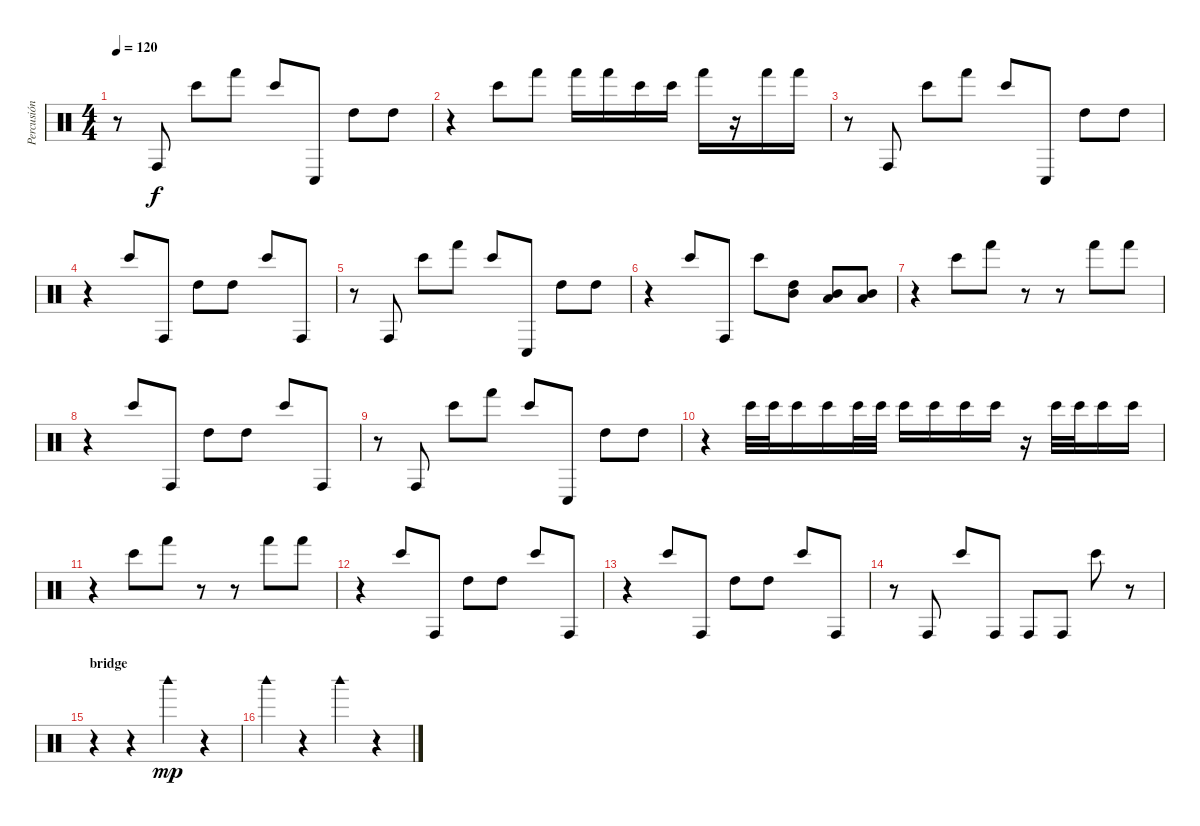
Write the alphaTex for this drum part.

\track ("Percusión" "Percusión") {instrument percussion}
\staff {score}
\articulation defaults
\ts (4 4)
\tempo 120
\clef neutral
\ks c
r.8{dy f} "Conga high (hit)".8 "Bongo High (hit)".8 "Hand (hit)".8 "Bongo High (hit)".8 "Conga low (hit)".8 "High Tom (hit)".8 "High Tom (hit)".8 |
r.4 "Bongo High (hit)".8 "Hand (hit)".8 "Hand (hit)".16 "Hand (hit)".16 "Bongo High (hit)".16 "Bongo High (hit)".16 "Hand (hit)".16 r.16 "Hand (hit)".16 "Hand (hit)".16 |
r.8 "Conga high (hit)".8 "Bongo High (hit)".8 "Hand (hit)".8 "Bongo High (hit)".8 "Conga low (hit)".8 "High Tom (hit)".8 "High Tom (hit)".8 |
r.4 "Bongo High (hit)".8 "Conga high (hit)".8 "High Tom (hit)".8 "High Tom (hit)".8 "Bongo High (hit)".8 "Conga high (hit)".8 |
r.8 "Conga high (hit)".8 "Bongo High (hit)".8 "Hand (hit)".8 "Bongo High (hit)".8 "Conga low (hit)".8 "High Tom (hit)".8 "High Tom (hit)".8 |
r.4 "Bongo High (hit)".8 "Conga high (hit)".8 "Bongo High (hit)".8 ("Mid Tom (hit)" "High Tom (hit)").8 ("Mid Tom (hit)" "Low Tom (hit)").8 ("Mid Tom (hit)" "Low Tom (hit)").8 |
r.4 "Bongo High (hit)".8 "Hand (hit)".8 r.8 r.8 "Hand (hit)".8 "Hand (hit)".8 |
r.4 "Bongo High (hit)".8 "Conga high (hit)".8 "High Tom (hit)".8 "High Tom (hit)".8 "Bongo High (hit)".8 "Conga high (hit)".8 |
r.8 "Conga high (hit)".8 "Bongo High (hit)".8 "Hand (hit)".8 "Bongo High (hit)".8 "Conga low (hit)".8 "High Tom (hit)".8 "High Tom (hit)".8 |
r.4 "Bongo High (hit)".32 "Bongo High (hit)".32 "Bongo High (hit)".16 "Bongo High (hit)".16 "Bongo High (hit)".32 "Bongo High (hit)".32 "Bongo High (hit)".16 "Bongo High (hit)".16 "Bongo High (hit)".16 "Bongo High (hit)".16 r.16 "Bongo High (hit)".32 "Bongo High (hit)".32 "Bongo High (hit)".16 "Bongo High (hit)".16 |
r.4 "Bongo High (hit)".8 "Hand (hit)".8 r.8 r.8 "Hand (hit)".8 "Hand (hit)".8 |
r.4 "Bongo High (hit)".8 "Conga high (hit)".8 "High Tom (hit)".8 "High Tom (hit)".8 "Bongo High (hit)".8 "Conga high (hit)".8 |
r.4 "Bongo High (hit)".8 "Conga high (hit)".8 "High Tom (hit)".8 "High Tom (hit)".8 "Bongo High (hit)".8 "Conga high (hit)".8 |
r.8 "Conga high (hit)".8 "Bongo High (hit)".8 "Conga high (hit)".8 "Conga high (hit)".8 "Conga high (hit)".8 "Bongo High (hit)".8 r.8 |
\section ("" "bridge")
r.4 r.4 "Woodblock high (hit)".4{dy mp} r.4 |
"Woodblock high (hit)".4 r.4 "Woodblock high (hit)".4 r.4
